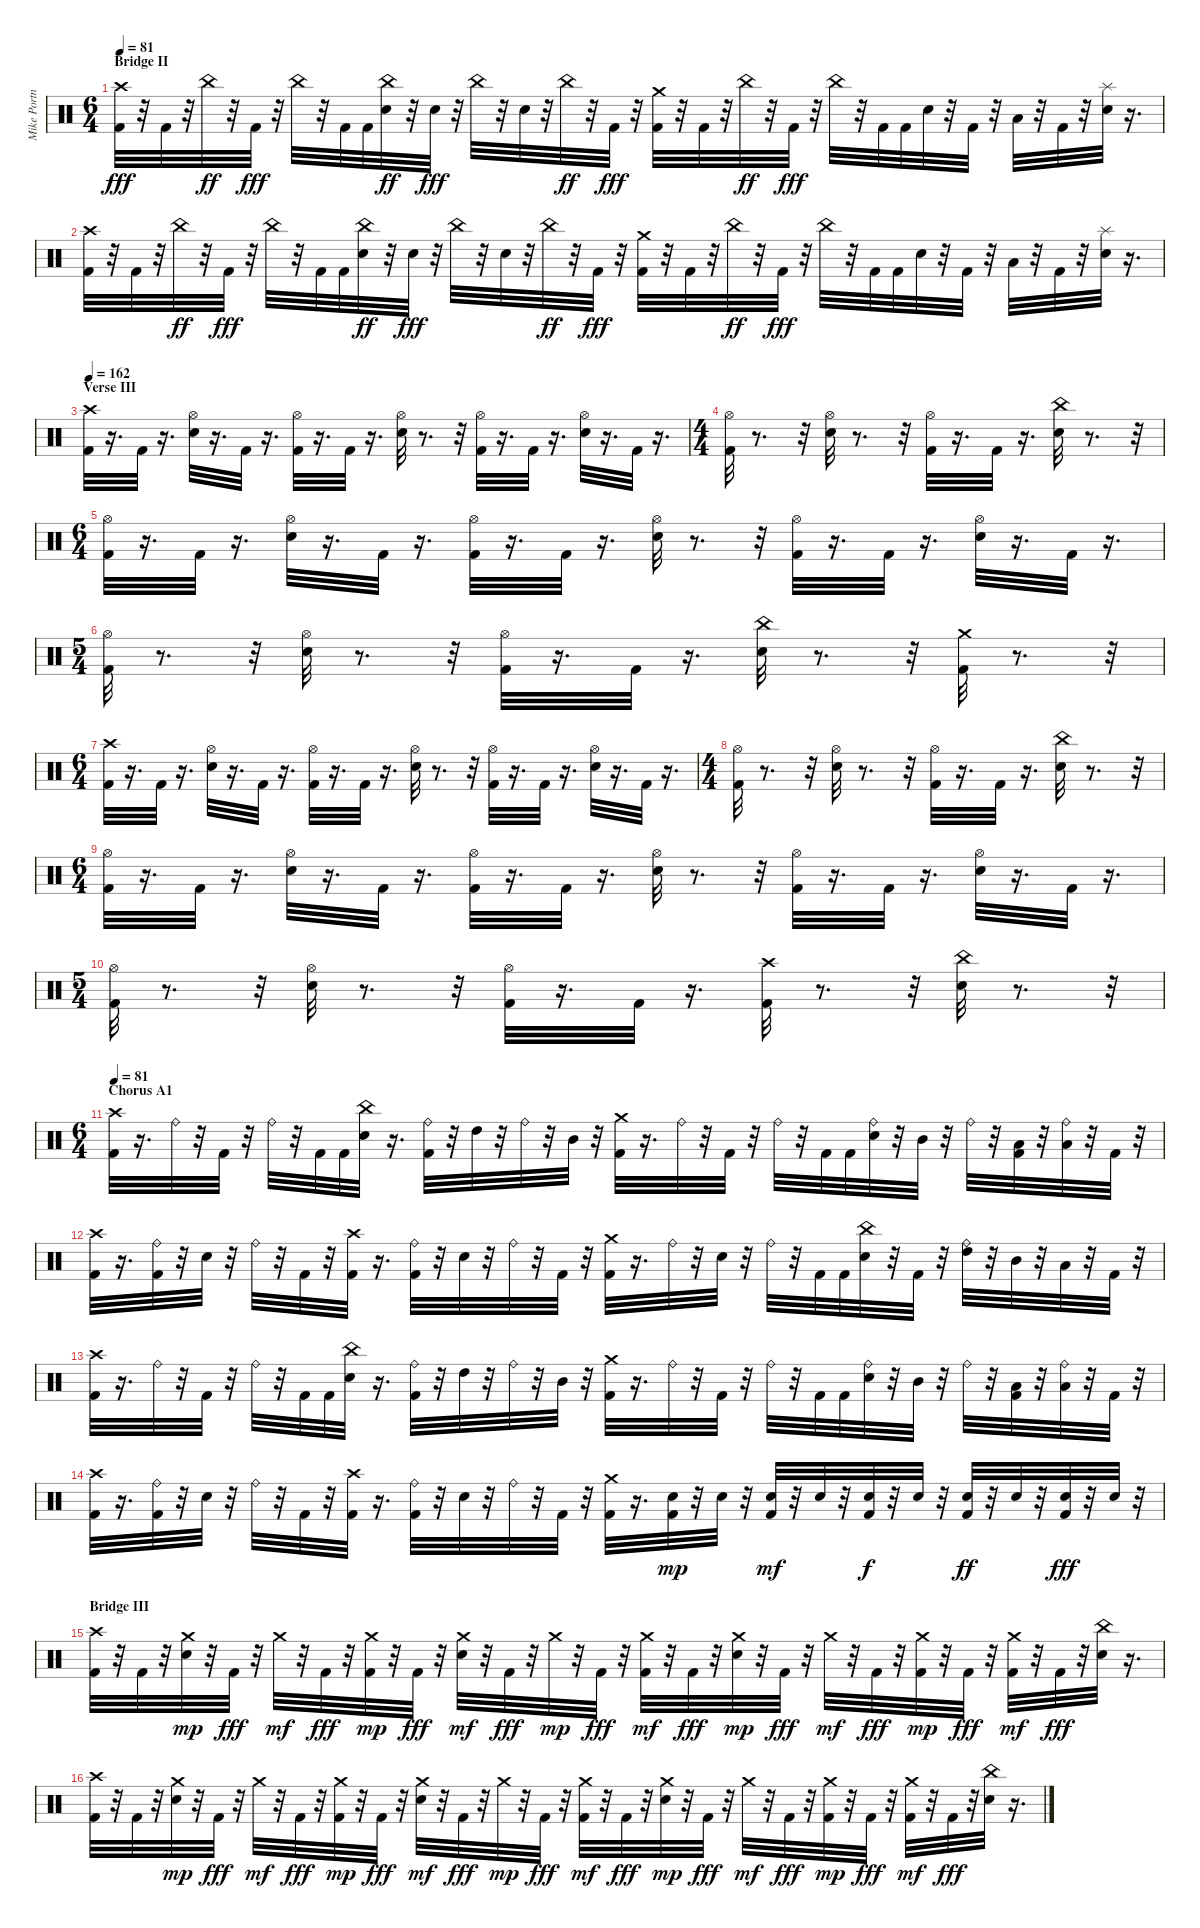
\track ("Mike Portnoy" "Mike Portn") {instrument percussion}
\staff {score}
\articulation defaults
\ts (6 4)
\section ("" "Bridge II")
\tempo 81
\clef neutral
\ks c
("Kick (hit) 2" "Crash high (hit)").32{dy fff} r.32 "Kick (hit) 2".32 r.32 "China (hit)".32{dy ff} r.32 "Kick (hit) 2".32{dy fff} r.32 "China (hit)".32 r.32 "Kick (hit) 2".32 "Kick (hit) 2".32 ("Snare (hit) 2" "China (hit)").32{dy ff} r.32 "Snare (hit) 2".32{dy fff} r.32 "China (hit)".32 r.32 "Snare (hit) 2".32 r.32 "China (hit)".32{dy ff} r.32 "Kick (hit) 2".32{dy fff} r.32 ("Kick (hit) 2" "Crash medium (hit)").32 r.32 "Kick (hit) 2".32 r.32 "China (hit)".32{dy ff} r.32 "Kick (hit) 2".32{dy fff} r.32 "China (hit)".32 r.32 "Kick (hit) 2".32 "Kick (hit) 2".32 "Snare (hit) 2".32 r.32 "Kick (hit) 2".32 r.32 "Low Tom (hit)".32 r.32 "Kick (hit) 2".32 r.32 ("Snare (hit) 2" "Splash (hit)").32 r.16{d} |
("Kick (hit) 2" "Crash high (hit)").32 r.32 "Kick (hit) 2".32 r.32 "China (hit)".32{dy ff} r.32 "Kick (hit) 2".32{dy fff} r.32 "China (hit)".32 r.32 "Kick (hit) 2".32 "Kick (hit) 2".32 ("Snare (hit) 2" "China (hit)").32{dy ff} r.32 "Snare (hit) 2".32{dy fff} r.32 "China (hit)".32 r.32 "Snare (hit) 2".32 r.32 "China (hit)".32{dy ff} r.32 "Kick (hit) 2".32{dy fff} r.32 ("Kick (hit) 2" "Crash medium (hit)").32 r.32 "Kick (hit) 2".32 r.32 "China (hit)".32{dy ff} r.32 "Kick (hit) 2".32{dy fff} r.32 "China (hit)".32 r.32 "Kick (hit) 2".32 "Kick (hit) 2".32 "Snare (hit) 2".32 r.32 "Kick (hit) 2".32 r.32 "Low Tom (hit)".32 r.32 "Kick (hit) 2".32 r.32 ("Snare (hit) 2" "Splash (hit)").32 r.16{d} |
\section ("" "Verse III")
\tempo 162
("Kick (hit) 2" "Crash high (hit)").32 r.16{d} "Kick (hit) 2".32 r.16{d} ("Hi-Hat (open)" "Snare (hit) 2").32 r.16{d} "Kick (hit) 2".32 r.16{d} ("Hi-Hat (open)" "Kick (hit) 2").32 r.16{d} "Kick (hit) 2".32 r.16{d} ("Hi-Hat (open)" "Snare (hit) 2").32 r.8{d} r.32 ("Hi-Hat (open)" "Kick (hit) 2").32 r.16{d} "Kick (hit) 2".32 r.16{d} ("Hi-Hat (open)" "Snare (hit) 2").32 r.16{d} "Kick (hit) 2".32 r.16{d} |
\ts (4 4)
("Hi-Hat (open)" "Kick (hit) 2").32 r.8{d} r.32 ("Hi-Hat (open)" "Snare (hit) 2").32 r.8{d} r.32 ("Hi-Hat (open)" "Kick (hit) 2").32 r.16{d} "Kick (hit) 2".32 r.16{d} ("Snare (hit) 2" "China (hit)").32 r.8{d} r.32 |
\ts (6 4)
("Hi-Hat (open)" "Kick (hit) 2").32 r.16{d} "Kick (hit) 2".32 r.16{d} ("Hi-Hat (open)" "Snare (hit) 2").32 r.16{d} "Kick (hit) 2".32 r.16{d} ("Hi-Hat (open)" "Kick (hit) 2").32 r.16{d} "Kick (hit) 2".32 r.16{d} ("Hi-Hat (open)" "Snare (hit) 2").32 r.8{d} r.32 ("Hi-Hat (open)" "Kick (hit) 2").32 r.16{d} "Kick (hit) 2".32 r.16{d} ("Hi-Hat (open)" "Snare (hit) 2").32 r.16{d} "Kick (hit) 2".32 r.16{d} |
\ts (5 4)
("Hi-Hat (open)" "Kick (hit) 2").32 r.8{d} r.32 ("Hi-Hat (open)" "Snare (hit) 2").32 r.8{d} r.32 ("Hi-Hat (open)" "Kick (hit) 2").32 r.16{d} "Kick (hit) 2".32 r.16{d} ("Snare (hit) 2" "China (hit)").32 r.8{d} r.32 ("Kick (hit) 2" "Crash medium (hit)").32 r.8{d} r.32 |
\ts (6 4)
("Kick (hit) 2" "Crash high (hit)").32 r.16{d} "Kick (hit) 2".32 r.16{d} ("Hi-Hat (open)" "Snare (hit) 2").32 r.16{d} "Kick (hit) 2".32 r.16{d} ("Hi-Hat (open)" "Kick (hit) 2").32 r.16{d} "Kick (hit) 2".32 r.16{d} ("Hi-Hat (open)" "Snare (hit) 2").32 r.8{d} r.32 ("Hi-Hat (open)" "Kick (hit) 2").32 r.16{d} "Kick (hit) 2".32 r.16{d} ("Hi-Hat (open)" "Snare (hit) 2").32 r.16{d} "Kick (hit) 2".32 r.16{d} |
\ts (4 4)
("Hi-Hat (open)" "Kick (hit) 2").32 r.8{d} r.32 ("Hi-Hat (open)" "Snare (hit) 2").32 r.8{d} r.32 ("Hi-Hat (open)" "Kick (hit) 2").32 r.16{d} "Kick (hit) 2".32 r.16{d} ("Snare (hit) 2" "China (hit)").32 r.8{d} r.32 |
\ts (6 4)
("Hi-Hat (open)" "Kick (hit) 2").32 r.16{d} "Kick (hit) 2".32 r.16{d} ("Hi-Hat (open)" "Snare (hit) 2").32 r.16{d} "Kick (hit) 2".32 r.16{d} ("Hi-Hat (open)" "Kick (hit) 2").32 r.16{d} "Kick (hit) 2".32 r.16{d} ("Hi-Hat (open)" "Snare (hit) 2").32 r.8{d} r.32 ("Hi-Hat (open)" "Kick (hit) 2").32 r.16{d} "Kick (hit) 2".32 r.16{d} ("Hi-Hat (open)" "Snare (hit) 2").32 r.16{d} "Kick (hit) 2".32 r.16{d} |
\ts (5 4)
("Hi-Hat (open)" "Kick (hit) 2").32 r.8{d} r.32 ("Hi-Hat (open)" "Snare (hit) 2").32 r.8{d} r.32 ("Hi-Hat (open)" "Kick (hit) 2").32 r.16{d} "Kick (hit) 2".32 r.16{d} ("Kick (hit) 2" "Crash high (hit)").32 r.8{d} r.32 ("Snare (hit) 2" "China (hit)").32 r.8{d} r.32 |
\ts (6 4)
\section ("" "Chorus A1")
\tempo 81
("Kick (hit) 2" "Crash high (hit)").32 r.16{d} "Ride (bell)".32 r.32 "Kick (hit) 2".32 r.32 "Ride (bell)".32 r.32 "Kick (hit) 2".32 "Kick (hit) 2".32 ("Snare (hit) 2" "China (hit)").32 r.16{d} ("Kick (hit) 2" "Ride (bell)").32 r.32 "High Tom (hit)".32 r.32 "Ride (bell)".32 r.32 "Mid Tom (hit)".32 r.32 ("Kick (hit) 2" "Crash medium (hit)").32 r.16{d} "Ride (bell)".32 r.32 "Kick (hit) 2".32 r.32 "Ride (bell)".32 r.32 "Kick (hit) 2".32 "Kick (hit) 2".32 ("Snare (hit) 2" "Ride (bell)").32 r.32 "Mid Tom (hit)".32 r.32 "Ride (bell)".32 r.32 ("Kick (hit) 2" "Low Tom (hit)").32 r.32 ("Low Tom (hit)" "Ride (bell)").32 r.32 "Kick (hit) 2".32 r.32 |
("Kick (hit) 2" "Crash high (hit)").32 r.16{d} ("Kick (hit) 2" "Ride (bell)").32 r.32 "Snare (hit) 2".32 r.32 "Ride (bell)".32 r.32 "Kick (hit) 2".32 r.32 ("Kick (hit) 2" "Crash high (hit)").32 r.16{d} ("Kick (hit) 2" "Ride (bell)").32 r.32 "Snare (hit) 2".32 r.32 "Ride (bell)".32 r.32 "Kick (hit) 2".32 r.32 ("Kick (hit) 2" "Crash medium (hit)").32 r.16{d} "Ride (bell)".32 r.32 "Snare (hit) 2".32 r.32 "Ride (bell)".32 r.32 "Kick (hit) 2".32 "Kick (hit) 2".32 ("Snare (hit) 2" "China (hit)").32 r.32 "Kick (hit) 2".32 r.32 ("High Tom (hit)" "Ride (bell)").32 r.32 "Mid Tom (hit)".32 r.32 "Low Tom (hit)".32 r.32 "Kick (hit) 2".32 r.32 |
("Kick (hit) 2" "Crash high (hit)").32 r.16{d} "Ride (bell)".32 r.32 "Kick (hit) 2".32 r.32 "Ride (bell)".32 r.32 "Kick (hit) 2".32 "Kick (hit) 2".32 ("Snare (hit) 2" "China (hit)").32 r.16{d} ("Kick (hit) 2" "Ride (bell)").32 r.32 "High Tom (hit)".32 r.32 "Ride (bell)".32 r.32 "Mid Tom (hit)".32 r.32 ("Kick (hit) 2" "Crash medium (hit)").32 r.16{d} "Ride (bell)".32 r.32 "Kick (hit) 2".32 r.32 "Ride (bell)".32 r.32 "Kick (hit) 2".32 "Kick (hit) 2".32 ("Snare (hit) 2" "Ride (bell)").32 r.32 "Mid Tom (hit)".32 r.32 "Ride (bell)".32 r.32 ("Kick (hit) 2" "Low Tom (hit)").32 r.32 ("Low Tom (hit)" "Ride (bell)").32 r.32 "Kick (hit) 2".32 r.32 |
("Kick (hit) 2" "Crash high (hit)").32 r.16{d} ("Kick (hit) 2" "Ride (bell)").32 r.32 "Snare (hit) 2".32 r.32 "Ride (bell)".32 r.32 "Kick (hit) 2".32 r.32 ("Kick (hit) 2" "Crash high (hit)").32 r.16{d} ("Kick (hit) 2" "Ride (bell)").32 r.32 "Snare (hit) 2".32 r.32 "Ride (bell)".32 r.32 "Kick (hit) 2".32 r.32 ("Kick (hit) 2" "Crash medium (hit)").32 r.16{d} ("Kick (hit) 2" "Snare (hit) 2").32{dy mp} r.32 "Snare (hit) 2".32 r.32 ("Kick (hit) 2" "Snare (hit) 2").32{dy mf} r.32 "Snare (hit) 2".32 r.32 ("Kick (hit) 2" "Snare (hit) 2").32{dy f} r.32 "Snare (hit) 2".32 r.32 ("Kick (hit) 2" "Snare (hit) 2").32{dy ff} r.32 "Snare (hit) 2".32 r.32 ("Kick (hit) 2" "Snare (hit) 2").32{dy fff} r.32 "Snare (hit) 2".32 r.32 |
\section ("" "Bridge III")
("Kick (hit) 2" "Crash high (hit)").32 r.32 "Kick (hit) 2".32 r.32 ("Snare (hit) 2" "Crash medium (hit)").32{dy mp} r.32 "Kick (hit) 2".32{dy fff} r.32 "Crash medium (hit)".32{dy mf} r.32 "Kick (hit) 2".32{dy fff} r.32 ("Kick (hit) 2" "Crash medium (hit)").32{dy mp} r.32 "Kick (hit) 2".32{dy fff} r.32 ("Snare (hit) 2" "Crash medium (hit)").32{dy mf} r.32 "Kick (hit) 2".32{dy fff} r.32 "Crash medium (hit)".32{dy mp} r.32 "Kick (hit) 2".32{dy fff} r.32 ("Kick (hit) 2" "Crash medium (hit)").32{dy mf} r.32 "Kick (hit) 2".32{dy fff} r.32 ("Snare (hit) 2" "Crash medium (hit)").32{dy mp} r.32 "Kick (hit) 2".32{dy fff} r.32 "Crash medium (hit)".32{dy mf} r.32 "Kick (hit) 2".32{dy fff} r.32 ("Kick (hit) 2" "Crash medium (hit)").32{dy mp} r.32 "Kick (hit) 2".32{dy fff} r.32 ("Kick (hit) 2" "Crash medium (hit)").32{dy mf} r.32 "Kick (hit) 2".32{dy fff} r.32 ("Snare (hit) 2" "China (hit)").32 r.16{d} |
("Kick (hit) 2" "Crash high (hit)").32 r.32 "Kick (hit) 2".32 r.32 ("Snare (hit) 2" "Crash medium (hit)").32{dy mp} r.32 "Kick (hit) 2".32{dy fff} r.32 "Crash medium (hit)".32{dy mf} r.32 "Kick (hit) 2".32{dy fff} r.32 ("Kick (hit) 2" "Crash medium (hit)").32{dy mp} r.32 "Kick (hit) 2".32{dy fff} r.32 ("Snare (hit) 2" "Crash medium (hit)").32{dy mf} r.32 "Kick (hit) 2".32{dy fff} r.32 "Crash medium (hit)".32{dy mp} r.32 "Kick (hit) 2".32{dy fff} r.32 ("Kick (hit) 2" "Crash medium (hit)").32{dy mf} r.32 "Kick (hit) 2".32{dy fff} r.32 ("Snare (hit) 2" "Crash medium (hit)").32{dy mp} r.32 "Kick (hit) 2".32{dy fff} r.32 "Crash medium (hit)".32{dy mf} r.32 "Kick (hit) 2".32{dy fff} r.32 ("Kick (hit) 2" "Crash medium (hit)").32{dy mp} r.32 "Kick (hit) 2".32{dy fff} r.32 ("Kick (hit) 2" "Crash medium (hit)").32{dy mf} r.32 "Kick (hit) 2".32{dy fff} r.32 ("Snare (hit) 2" "China (hit)").32 r.16{d}
